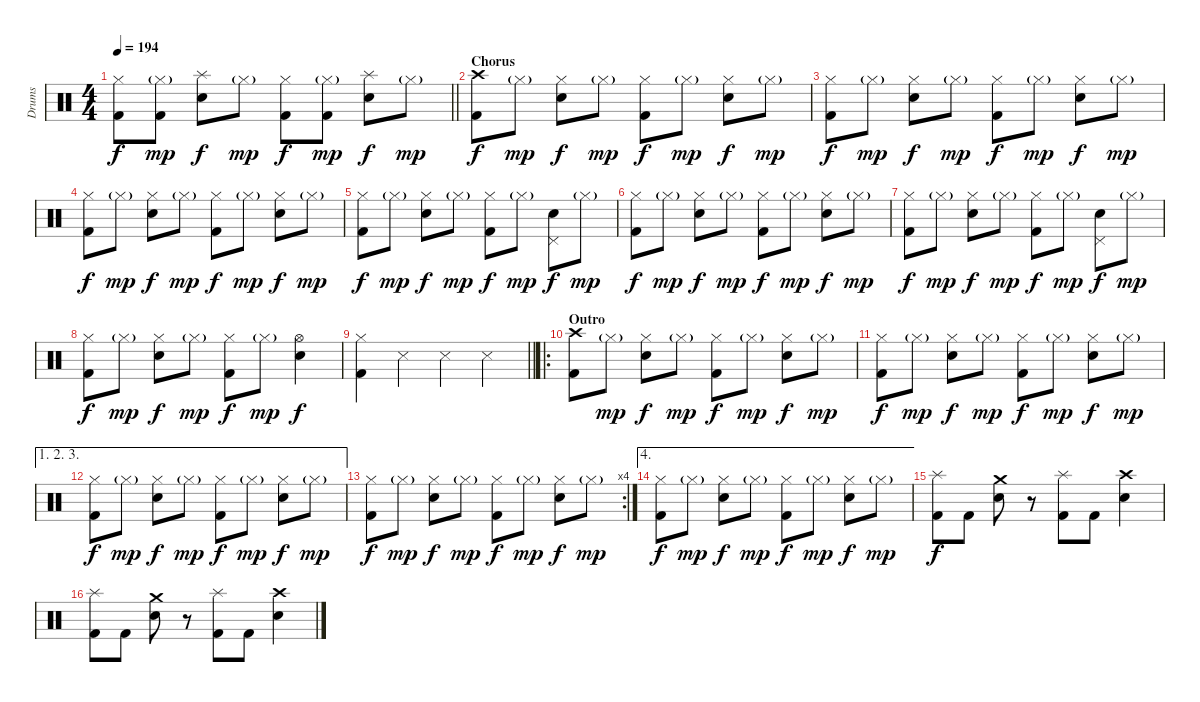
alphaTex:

\track ("Drums" "Drums") {instrument percussion}
\staff {score}
\articulation defaults
\ts (4 4)
\tempo 194
\clef neutral
\barLineRight lightlight
\ks c
("Hi-Hat (closed)" "Kick (hit) 2").8{dy f} ("Hi-Hat (closed)"{g} "Kick (hit) 2").8{dy mp} ("Splash (hit)" "Snare (hit) 2").8{dy f} "Hi-Hat (closed)"{g}.8{dy mp} ("Hi-Hat (closed)" "Kick (hit) 2").8{dy f} ("Hi-Hat (closed)"{g} "Kick (hit) 2").8{dy mp} ("Splash (hit)" "Snare (hit) 2").8{dy f} "Hi-Hat (closed)"{g}.8{dy mp} |
\section ("" "Chorus")
("Crash high (hit)" "Kick (hit) 2").8{dy f} "Hi-Hat (closed)"{g}.8{dy mp} ("Hi-Hat (closed)" "Snare (hit) 2").8{dy f} "Hi-Hat (closed)"{g}.8{dy mp} ("Hi-Hat (closed)" "Kick (hit) 2").8{dy f} "Hi-Hat (closed)"{g}.8{dy mp} ("Hi-Hat (closed)" "Snare (hit) 2").8{dy f} "Hi-Hat (closed)"{g}.8{dy mp} |
("Hi-Hat (closed)" "Kick (hit) 2").8{dy f} "Hi-Hat (closed)"{g}.8{dy mp} ("Hi-Hat (closed)" "Snare (hit) 2").8{dy f} "Hi-Hat (closed)"{g}.8{dy mp} ("Hi-Hat (closed)" "Kick (hit) 2").8{dy f} "Hi-Hat (closed)"{g}.8{dy mp} ("Hi-Hat (closed)" "Snare (hit) 2").8{dy f} "Hi-Hat (closed)"{g}.8{dy mp} |
("Hi-Hat (closed)" "Kick (hit) 2").8{dy f} "Hi-Hat (closed)"{g}.8{dy mp} ("Hi-Hat (closed)" "Snare (hit) 2").8{dy f} "Hi-Hat (closed)"{g}.8{dy mp} ("Hi-Hat (closed)" "Kick (hit) 2").8{dy f} "Hi-Hat (closed)"{g}.8{dy mp} ("Hi-Hat (closed)" "Snare (hit) 2").8{dy f} "Hi-Hat (closed)"{g}.8{dy mp} |
("Hi-Hat (closed)" "Kick (hit) 2").8{dy f} "Hi-Hat (closed)"{g}.8{dy mp} ("Hi-Hat (closed)" "Snare (hit) 2").8{dy f} "Hi-Hat (closed)"{g}.8{dy mp} ("Hi-Hat (closed)" "Kick (hit) 2").8{dy f} "Hi-Hat (closed)"{g}.8{dy mp} ("Pedal Hi-Hat (hit)" "Snare (hit) 2").8{dy f} "Hi-Hat (closed)"{g}.8{dy mp} |
("Hi-Hat (closed)" "Kick (hit) 2").8{dy f} "Hi-Hat (closed)"{g}.8{dy mp} ("Hi-Hat (closed)" "Snare (hit) 2").8{dy f} "Hi-Hat (closed)"{g}.8{dy mp} ("Hi-Hat (closed)" "Kick (hit) 2").8{dy f} "Hi-Hat (closed)"{g}.8{dy mp} ("Hi-Hat (closed)" "Snare (hit) 2").8{dy f} "Hi-Hat (closed)"{g}.8{dy mp} |
("Hi-Hat (closed)" "Kick (hit) 2").8{dy f} "Hi-Hat (closed)"{g}.8{dy mp} ("Hi-Hat (closed)" "Snare (hit) 2").8{dy f} "Hi-Hat (closed)"{g}.8{dy mp} ("Hi-Hat (closed)" "Kick (hit) 2").8{dy f} "Hi-Hat (closed)"{g}.8{dy mp} ("Pedal Hi-Hat (hit)" "Snare (hit) 2").8{dy f} "Hi-Hat (closed)"{g}.8{dy mp} |
("Hi-Hat (closed)" "Kick (hit) 2").8{dy f} "Hi-Hat (closed)"{g}.8{dy mp} ("Hi-Hat (closed)" "Snare (hit) 2").8{dy f} "Hi-Hat (closed)"{g}.8{dy mp} ("Hi-Hat (closed)" "Kick (hit) 2").8{dy f} "Hi-Hat (closed)"{g}.8{dy mp} ("Hi-Hat (open)" "Snare (hit) 2").4{dy f} |
\barLineRight lightlight
("Hi-Hat (closed)" "Kick (hit) 2").4 "Snare (side stick) 3".4 "Snare (side stick) 3".4 "Snare (side stick) 3".4 |
\ro
\section ("" "Outro")
("Crash high (hit)" "Kick (hit) 2").8 "Hi-Hat (closed)"{g}.8{dy mp} ("Hi-Hat (closed)" "Snare (hit) 2").8{dy f} "Hi-Hat (closed)"{g}.8{dy mp} ("Hi-Hat (closed)" "Kick (hit) 2").8{dy f} "Hi-Hat (closed)"{g}.8{dy mp} ("Hi-Hat (closed)" "Snare (hit) 2").8{dy f} "Hi-Hat (closed)"{g}.8{dy mp} |
("Hi-Hat (closed)" "Kick (hit) 2").8{dy f} "Hi-Hat (closed)"{g}.8{dy mp} ("Hi-Hat (closed)" "Snare (hit) 2").8{dy f} "Hi-Hat (closed)"{g}.8{dy mp} ("Hi-Hat (closed)" "Kick (hit) 2").8{dy f} "Hi-Hat (closed)"{g}.8{dy mp} ("Hi-Hat (closed)" "Snare (hit) 2").8{dy f} "Hi-Hat (closed)"{g}.8{dy mp} |
\ae (1 2 3)
("Hi-Hat (closed)" "Kick (hit) 2").8{dy f} "Hi-Hat (closed)"{g}.8{dy mp} ("Hi-Hat (closed)" "Snare (hit) 2").8{dy f} "Hi-Hat (closed)"{g}.8{dy mp} ("Hi-Hat (closed)" "Kick (hit) 2").8{dy f} "Hi-Hat (closed)"{g}.8{dy mp} ("Hi-Hat (closed)" "Snare (hit) 2").8{dy f} "Hi-Hat (closed)"{g}.8{dy mp} |
\rc 4
("Hi-Hat (closed)" "Kick (hit) 2").8{dy f} "Hi-Hat (closed)"{g}.8{dy mp} ("Hi-Hat (closed)" "Snare (hit) 2").8{dy f} "Hi-Hat (closed)"{g}.8{dy mp} ("Hi-Hat (closed)" "Kick (hit) 2").8{dy f} "Hi-Hat (closed)"{g}.8{dy mp} ("Hi-Hat (closed)" "Snare (hit) 2").8{dy f} "Hi-Hat (closed)"{g}.8{dy mp} |
\ae 4
("Hi-Hat (closed)" "Kick (hit) 2").8{dy f} "Hi-Hat (closed)"{g}.8{dy mp} ("Hi-Hat (closed)" "Snare (hit) 2").8{dy f} "Hi-Hat (closed)"{g}.8{dy mp} ("Hi-Hat (closed)" "Kick (hit) 2").8{dy f} "Hi-Hat (closed)"{g}.8{dy mp} ("Hi-Hat (closed)" "Snare (hit) 2").8{dy f} "Hi-Hat (closed)"{g}.8{dy mp} |
("Splash (hit)" "Kick (hit) 2").8{dy f} "Kick (hit) 2".8 ("Crash medium (hit)" "Snare (hit) 2").8 r.8 ("Splash (hit)" "Kick (hit) 2").8 "Kick (hit) 2".8 ("Crash high (hit)" "Snare (hit) 2").4 |
("Splash (hit)" "Kick (hit) 2").8 "Kick (hit) 2".8 ("Crash medium (hit)" "Snare (hit) 2").8 r.8 ("Splash (hit)" "Kick (hit) 2").8 "Kick (hit) 2".8 ("Crash high (hit)" "Snare (hit) 2").4
